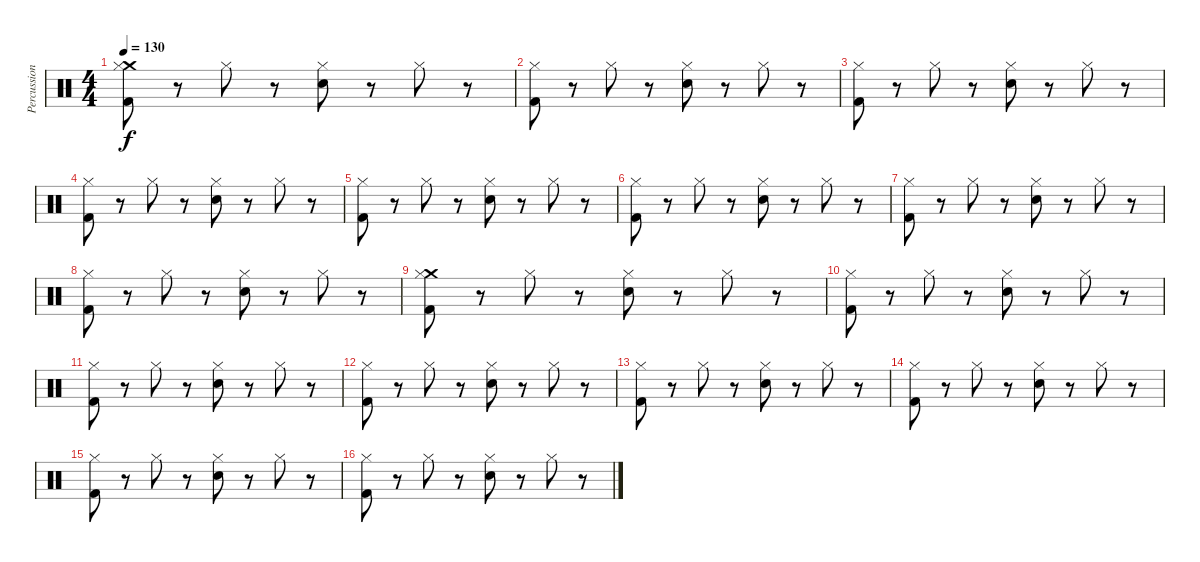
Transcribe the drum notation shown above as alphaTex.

\track ("Percussion" "Percussion") {instrument percussion}
\staff {score}
\articulation defaults
\ts (4 4)
\tempo 130
\clef neutral
\ks c
("Crash medium (hit)" "Hi-Hat (closed)" "Kick (hit) 2").8{dy f} r.8 "Hi-Hat (closed)".8 r.8 ("Hi-Hat (closed)" "Snare (hit) 2").8 r.8 "Hi-Hat (closed)".8 r.8 |
("Hi-Hat (closed)" "Kick (hit) 2").8 r.8 "Hi-Hat (closed)".8 r.8 ("Hi-Hat (closed)" "Snare (hit) 2").8 r.8 "Hi-Hat (closed)".8 r.8 |
("Hi-Hat (closed)" "Kick (hit) 2").8 r.8 "Hi-Hat (closed)".8 r.8 ("Hi-Hat (closed)" "Snare (hit) 2").8 r.8 "Hi-Hat (closed)".8 r.8 |
("Hi-Hat (closed)" "Kick (hit) 2").8 r.8 "Hi-Hat (closed)".8 r.8 ("Hi-Hat (closed)" "Snare (hit) 2").8 r.8 "Hi-Hat (closed)".8 r.8 |
("Hi-Hat (closed)" "Kick (hit) 2").8 r.8 "Hi-Hat (closed)".8 r.8 ("Hi-Hat (closed)" "Snare (hit) 2").8 r.8 "Hi-Hat (closed)".8 r.8 |
("Hi-Hat (closed)" "Kick (hit) 2").8 r.8 "Hi-Hat (closed)".8 r.8 ("Hi-Hat (closed)" "Snare (hit) 2").8 r.8 "Hi-Hat (closed)".8 r.8 |
("Hi-Hat (closed)" "Kick (hit) 2").8 r.8 "Hi-Hat (closed)".8 r.8 ("Hi-Hat (closed)" "Snare (hit) 2").8 r.8 "Hi-Hat (closed)".8 r.8 |
("Hi-Hat (closed)" "Kick (hit) 2").8 r.8 "Hi-Hat (closed)".8 r.8 ("Hi-Hat (closed)" "Snare (hit) 2").8 r.8 "Hi-Hat (closed)".8 r.8 |
("Crash medium (hit)" "Hi-Hat (closed)" "Kick (hit) 2").8 r.8 "Hi-Hat (closed)".8 r.8 ("Hi-Hat (closed)" "Snare (hit) 2").8 r.8 "Hi-Hat (closed)".8 r.8 |
("Hi-Hat (closed)" "Kick (hit) 2").8 r.8 "Hi-Hat (closed)".8 r.8 ("Hi-Hat (closed)" "Snare (hit) 2").8 r.8 "Hi-Hat (closed)".8 r.8 |
("Hi-Hat (closed)" "Kick (hit) 2").8 r.8 "Hi-Hat (closed)".8 r.8 ("Hi-Hat (closed)" "Snare (hit) 2").8 r.8 "Hi-Hat (closed)".8 r.8 |
("Hi-Hat (closed)" "Kick (hit) 2").8 r.8 "Hi-Hat (closed)".8 r.8 ("Hi-Hat (closed)" "Snare (hit) 2").8 r.8 "Hi-Hat (closed)".8 r.8 |
("Hi-Hat (closed)" "Kick (hit) 2").8 r.8 "Hi-Hat (closed)".8 r.8 ("Hi-Hat (closed)" "Snare (hit) 2").8 r.8 "Hi-Hat (closed)".8 r.8 |
("Hi-Hat (closed)" "Kick (hit) 2").8 r.8 "Hi-Hat (closed)".8 r.8 ("Hi-Hat (closed)" "Snare (hit) 2").8 r.8 "Hi-Hat (closed)".8 r.8 |
("Hi-Hat (closed)" "Kick (hit) 2").8 r.8 "Hi-Hat (closed)".8 r.8 ("Hi-Hat (closed)" "Snare (hit) 2").8 r.8 "Hi-Hat (closed)".8 r.8 |
("Hi-Hat (closed)" "Kick (hit) 2").8 r.8 "Hi-Hat (closed)".8 r.8 ("Hi-Hat (closed)" "Snare (hit) 2").8 r.8 "Hi-Hat (closed)".8 r.8
